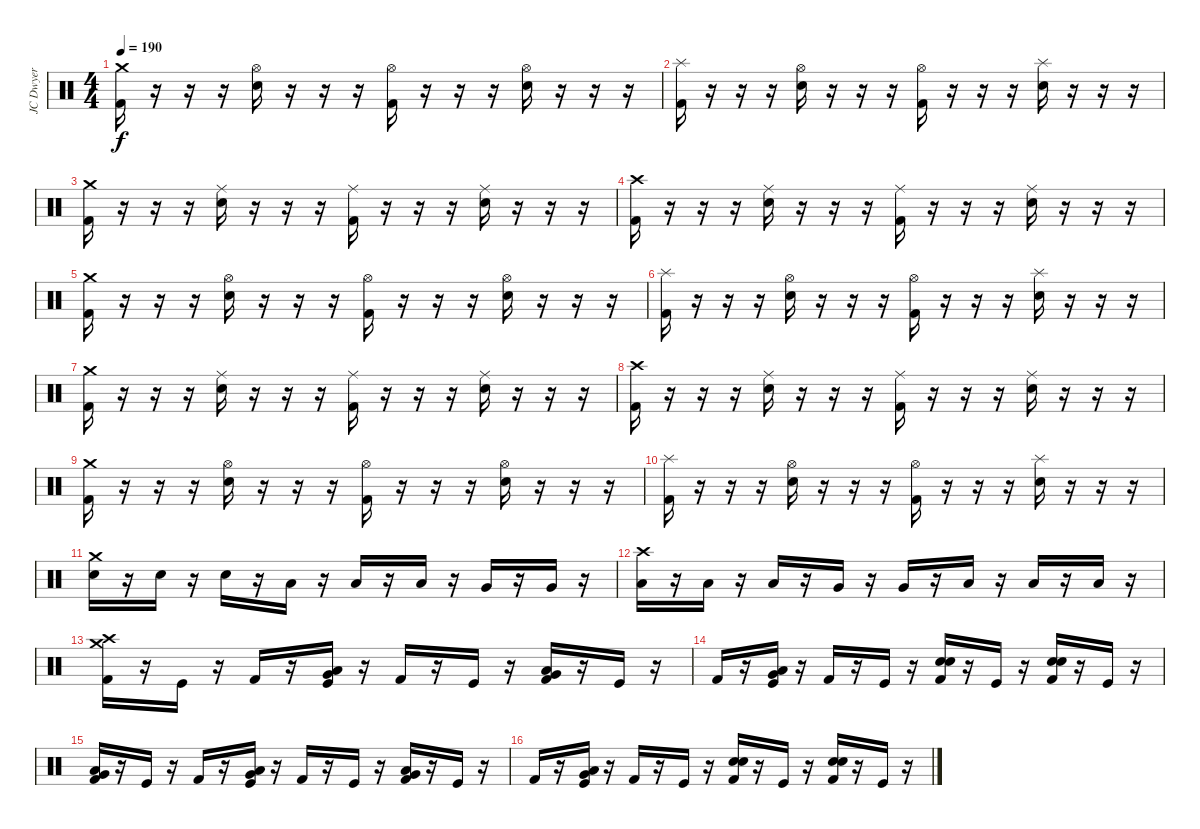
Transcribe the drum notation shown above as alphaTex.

\track ("JC Dwyer" "JC Dwyer") {instrument percussion}
\staff {score}
\articulation defaults
\ts (4 4)
\tempo 190
\clef neutral
\ks c
("Crash medium (hit)" "Kick (hit) 2").16{dy f} r.16 r.16 r.16 ("Hi-Hat (open)" "Electric Snare (hit)").16 r.16 r.16 r.16 ("Hi-Hat (open)" "Kick (hit) 2").16 r.16 r.16 r.16 ("Hi-Hat (open)" "Electric Snare (hit)").16 r.16 r.16 r.16 |
("Splash (hit)" "Kick (hit) 2").16 r.16 r.16 r.16 ("Hi-Hat (open)" "Electric Snare (hit)").16 r.16 r.16 r.16 ("Hi-Hat (open)" "Kick (hit) 2").16 r.16 r.16 r.16 ("Splash (hit)" "Electric Snare (hit)").16 r.16 r.16 r.16 |
("Crash medium (hit)" "Kick (hit) 2").16 r.16 r.16 r.16 ("Ride (middle)" "Electric Snare (hit)").16 r.16 r.16 r.16 ("Ride (middle)" "Kick (hit) 2").16 r.16 r.16 r.16 ("Ride (middle)" "Electric Snare (hit)").16 r.16 r.16 r.16 |
("Crash high (hit)" "Kick (hit) 2").16 r.16 r.16 r.16 ("Ride (middle)" "Electric Snare (hit)").16 r.16 r.16 r.16 ("Ride (middle)" "Kick (hit) 2").16 r.16 r.16 r.16 ("Ride (middle)" "Electric Snare (hit)").16 r.16 r.16 r.16 |
("Crash medium (hit)" "Kick (hit) 2").16 r.16 r.16 r.16 ("Hi-Hat (open)" "Electric Snare (hit)").16 r.16 r.16 r.16 ("Hi-Hat (open)" "Kick (hit) 2").16 r.16 r.16 r.16 ("Hi-Hat (open)" "Electric Snare (hit)").16 r.16 r.16 r.16 |
("Splash (hit)" "Kick (hit) 2").16 r.16 r.16 r.16 ("Hi-Hat (open)" "Electric Snare (hit)").16 r.16 r.16 r.16 ("Hi-Hat (open)" "Kick (hit) 2").16 r.16 r.16 r.16 ("Splash (hit)" "Electric Snare (hit)").16 r.16 r.16 r.16 |
("Crash medium (hit)" "Kick (hit) 2").16 r.16 r.16 r.16 ("Ride (middle)" "Electric Snare (hit)").16 r.16 r.16 r.16 ("Ride (middle)" "Kick (hit) 2").16 r.16 r.16 r.16 ("Ride (middle)" "Electric Snare (hit)").16 r.16 r.16 r.16 |
("Crash high (hit)" "Kick (hit) 2").16 r.16 r.16 r.16 ("Ride (middle)" "Electric Snare (hit)").16 r.16 r.16 r.16 ("Ride (middle)" "Kick (hit) 2").16 r.16 r.16 r.16 ("Ride (middle)" "Electric Snare (hit)").16 r.16 r.16 r.16 |
("Crash medium (hit)" "Kick (hit) 2").16 r.16 r.16 r.16 ("Hi-Hat (open)" "Electric Snare (hit)").16 r.16 r.16 r.16 ("Hi-Hat (open)" "Kick (hit) 2").16 r.16 r.16 r.16 ("Hi-Hat (open)" "Electric Snare (hit)").16 r.16 r.16 r.16 |
("Splash (hit)" "Kick (hit) 2").16 r.16 r.16 r.16 ("Hi-Hat (open)" "Electric Snare (hit)").16 r.16 r.16 r.16 ("Hi-Hat (open)" "Kick (hit) 2").16 r.16 r.16 r.16 ("Splash (hit)" "Electric Snare (hit)").16 r.16 r.16 r.16 |
("Crash medium (hit)" "Electric Snare (hit)").16 r.16 "Electric Snare (hit)".16 r.16 "Electric Snare (hit)".16 r.16 "Low Tom (hit)".16 r.16 "Low Tom (hit)".16 r.16 "Low Tom (hit)".16 r.16 "Very Low Tom (hit)".16 r.16 "Very Low Tom (hit)".16 r.16 |
("Crash high (hit)" "Low Tom (hit)").16 r.16 "Low Tom (hit)".16 r.16 "Low Tom (hit)".16 r.16 "Very Low Tom (hit)".16 r.16 "Very Low Tom (hit)".16 r.16 "Low Floor Tom (hit)".16 r.16 "Low Floor Tom (hit)".16 r.16 "Low Floor Tom (hit)".16 r.16 |
("Crash medium (hit)" "Crash high (hit)" "Kick (hit) 2").16 r.16 "Kick (hit)".16 r.16 "Kick (hit) 2".16 r.16 ("Very Low Tom (hit)" "Low Floor Tom (hit)" "Kick (hit)").16 r.16 "Kick (hit) 2".16 r.16 "Kick (hit)".16 r.16 ("Very Low Tom (hit)" "Low Floor Tom (hit)" "Kick (hit) 2").16 r.16 "Kick (hit)".16 r.16 |
"Kick (hit) 2".16 r.16 ("Very Low Tom (hit)" "Low Floor Tom (hit)" "Kick (hit)").16 r.16 "Kick (hit) 2".16 r.16 "Kick (hit)".16 r.16 ("Electric Snare (hit)" "Electric Snare (hit)" "Kick (hit) 2").16 r.16 "Kick (hit)".16 r.16 ("Electric Snare (hit)" "Electric Snare (hit)" "Kick (hit) 2").16 r.16 "Kick (hit)".16 r.16 |
("Very Low Tom (hit)" "Low Floor Tom (hit)" "Kick (hit) 2").16 r.16 "Kick (hit)".16 r.16 "Kick (hit) 2".16 r.16 ("Very Low Tom (hit)" "Low Floor Tom (hit)" "Kick (hit)").16 r.16 "Kick (hit) 2".16 r.16 "Kick (hit)".16 r.16 ("Very Low Tom (hit)" "Low Floor Tom (hit)" "Kick (hit) 2").16 r.16 "Kick (hit)".16 r.16 |
"Kick (hit) 2".16 r.16 ("Very Low Tom (hit)" "Low Floor Tom (hit)" "Kick (hit)").16 r.16 "Kick (hit) 2".16 r.16 "Kick (hit)".16 r.16 ("Electric Snare (hit)" "Electric Snare (hit)" "Kick (hit) 2").16 r.16 "Kick (hit)".16 r.16 ("Electric Snare (hit)" "Electric Snare (hit)" "Kick (hit) 2").16 r.16 "Kick (hit)".16 r.16
